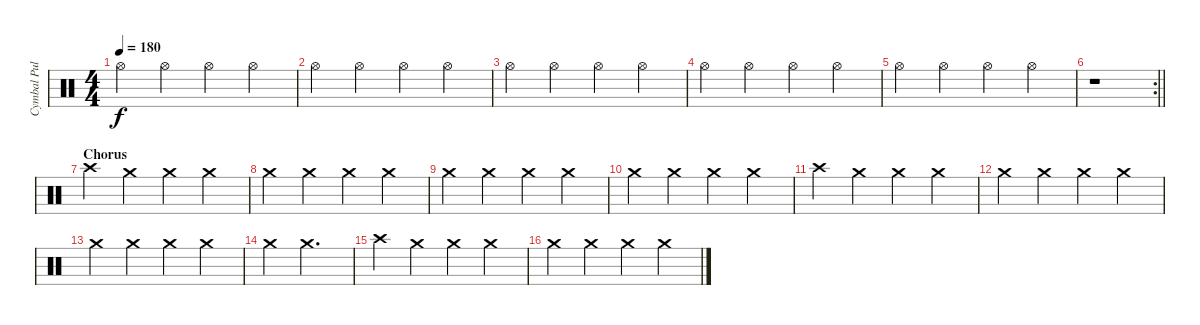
\track ("Cymbal Pulse" "Cymbal Pul") {instrument percussion}
\staff {score}
\articulation defaults
\ts (4 4)
\tempo 180
\clef neutral
\ks c "Hi-Hat (open)".4{dy f} "Hi-Hat (open)".4 "Hi-Hat (open)".4 "Hi-Hat (open)".4
|
"Hi-Hat (open)".4 "Hi-Hat (open)".4 "Hi-Hat (open)".4 "Hi-Hat (open)".4 |
"Hi-Hat (open)".4 "Hi-Hat (open)".4 "Hi-Hat (open)".4 "Hi-Hat (open)".4 |
"Hi-Hat (open)".4 "Hi-Hat (open)".4 "Hi-Hat (open)".4 "Hi-Hat (open)".4 |
"Hi-Hat (open)".4 "Hi-Hat (open)".4 "Hi-Hat (open)".4 "Hi-Hat (open)".4 |
\rc 2
\barLineRight lightlight
r.1 |
\section ("" "Chorus")
"Crash high (hit)".4 "Crash medium (hit)".4 "Crash medium (hit)".4 "Crash medium (hit)".4 |
"Crash medium (hit)".4 "Crash medium (hit)".4 "Crash medium (hit)".4 "Crash medium (hit)".4 |
"Crash medium (hit)".4 "Crash medium (hit)".4 "Crash medium (hit)".4 "Crash medium (hit)".4 |
"Crash medium (hit)".4 "Crash medium (hit)".4 "Crash medium (hit)".4 "Crash medium (hit)".4 |
"Crash high (hit)".4 "Crash medium (hit)".4 "Crash medium (hit)".4 "Crash medium (hit)".4 |
"Crash medium (hit)".4 "Crash medium (hit)".4 "Crash medium (hit)".4 "Crash medium (hit)".4 |
"Crash medium (hit)".4 "Crash medium (hit)".4 "Crash medium (hit)".4 "Crash medium (hit)".4 |
"Crash medium (hit)".4 "Crash medium (hit)".2{d} |
"Crash high (hit)".4 "Crash medium (hit)".4 "Crash medium (hit)".4 "Crash medium (hit)".4 |
"Crash medium (hit)".4 "Crash medium (hit)".4 "Crash medium (hit)".4 "Crash medium (hit)".4
